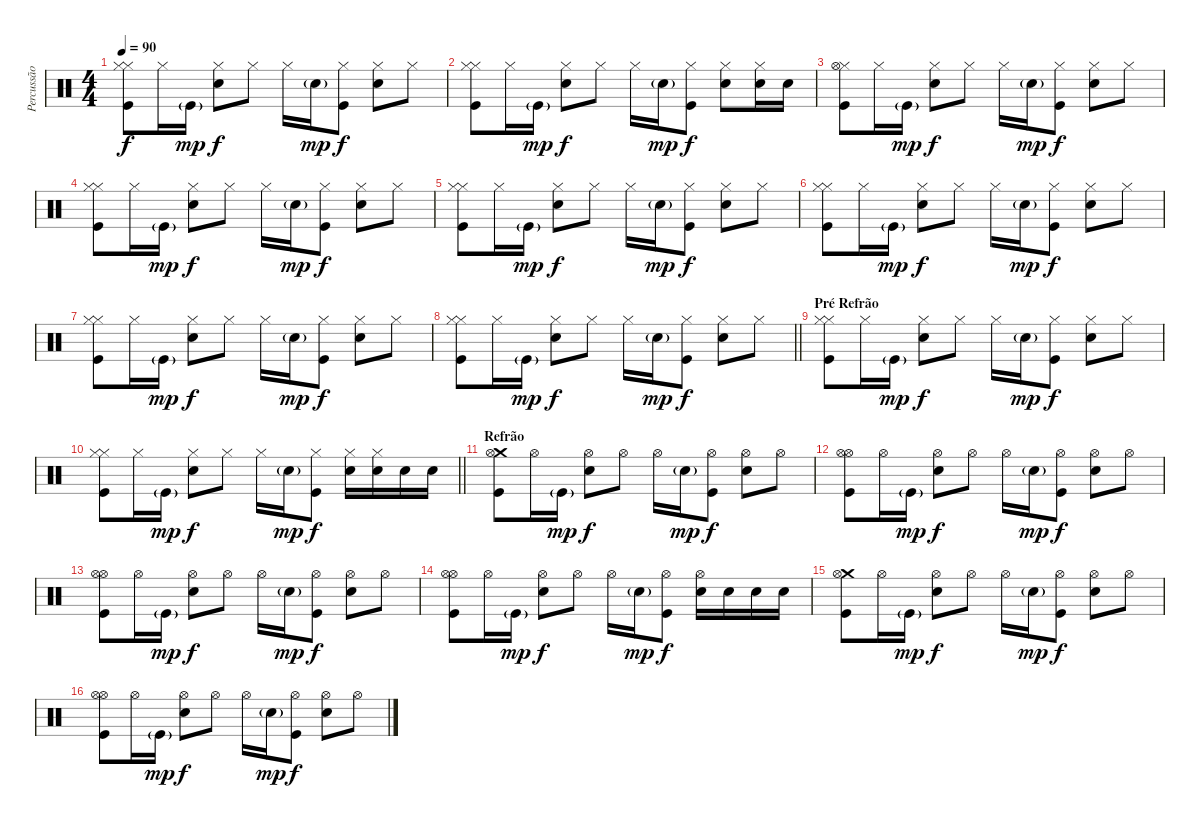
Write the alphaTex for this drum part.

\track ("Percussão" "Percussão") {instrument percussion}
\staff {score}
\articulation defaults
\ts (4 4)
\tempo 90
\clef neutral
\ks c
("Hi-Hat (closed)" "Kick (hit)" "Hi-Hat (closed)").8{dy f} "Hi-Hat (closed)".16 "Kick (hit)"{g}.16{dy mp} ("Snare (hit) 2" "Hi-Hat (closed)").8{dy f} "Hi-Hat (closed)".8 "Hi-Hat (closed)".16 "Snare (hit) 2"{g}.16{dy mp} ("Hi-Hat (closed)" "Kick (hit)").8{dy f} ("Hi-Hat (closed)" "Snare (hit) 2").8 "Hi-Hat (closed)".8 |
("Hi-Hat (closed)" "Kick (hit)" "Hi-Hat (closed)").8 "Hi-Hat (closed)".16 "Kick (hit)"{g}.16{dy mp} ("Snare (hit) 2" "Hi-Hat (closed)").8{dy f} "Hi-Hat (closed)".8 "Hi-Hat (closed)".16 "Snare (hit) 2"{g}.16{dy mp} ("Hi-Hat (closed)" "Kick (hit)").8{dy f} ("Hi-Hat (closed)" "Snare (hit) 2").8 ("Hi-Hat (closed)" "Snare (hit) 2").16 "Snare (hit) 2".16 |
("Hi-Hat (closed)" "Kick (hit)" "Hi-Hat (open)").8 "Hi-Hat (closed)".16 "Kick (hit)"{g}.16{dy mp} ("Snare (hit) 2" "Hi-Hat (closed)").8{dy f} "Hi-Hat (closed)".8 "Hi-Hat (closed)".16 "Snare (hit) 2"{g}.16{dy mp} ("Hi-Hat (closed)" "Kick (hit)").8{dy f} ("Hi-Hat (closed)" "Snare (hit) 2").8 "Hi-Hat (closed)".8 |
("Hi-Hat (closed)" "Kick (hit)" "Hi-Hat (closed)").8 "Hi-Hat (closed)".16 "Kick (hit)"{g}.16{dy mp} ("Snare (hit) 2" "Hi-Hat (closed)").8{dy f} "Hi-Hat (closed)".8 "Hi-Hat (closed)".16 "Snare (hit) 2"{g}.16{dy mp} ("Hi-Hat (closed)" "Kick (hit)").8{dy f} ("Hi-Hat (closed)" "Snare (hit) 2").8 "Hi-Hat (closed)".8 |
("Hi-Hat (closed)" "Kick (hit)" "Hi-Hat (closed)").8 "Hi-Hat (closed)".16 "Kick (hit)"{g}.16{dy mp} ("Snare (hit) 2" "Hi-Hat (closed)").8{dy f} "Hi-Hat (closed)".8 "Hi-Hat (closed)".16 "Snare (hit) 2"{g}.16{dy mp} ("Hi-Hat (closed)" "Kick (hit)").8{dy f} ("Hi-Hat (closed)" "Snare (hit) 2").8 "Hi-Hat (closed)".8 |
("Hi-Hat (closed)" "Kick (hit)" "Hi-Hat (closed)").8 "Hi-Hat (closed)".16 "Kick (hit)"{g}.16{dy mp} ("Snare (hit) 2" "Hi-Hat (closed)").8{dy f} "Hi-Hat (closed)".8 "Hi-Hat (closed)".16 "Snare (hit) 2"{g}.16{dy mp} ("Hi-Hat (closed)" "Kick (hit)").8{dy f} ("Hi-Hat (closed)" "Snare (hit) 2").8 "Hi-Hat (closed)".8 |
("Hi-Hat (closed)" "Kick (hit)" "Hi-Hat (closed)").8 "Hi-Hat (closed)".16 "Kick (hit)"{g}.16{dy mp} ("Snare (hit) 2" "Hi-Hat (closed)").8{dy f} "Hi-Hat (closed)".8 "Hi-Hat (closed)".16 "Snare (hit) 2"{g}.16{dy mp} ("Hi-Hat (closed)" "Kick (hit)").8{dy f} ("Hi-Hat (closed)" "Snare (hit) 2").8 "Hi-Hat (closed)".8 |
\barLineRight lightlight
("Hi-Hat (closed)" "Kick (hit)" "Hi-Hat (closed)").8 "Hi-Hat (closed)".16 "Kick (hit)"{g}.16{dy mp} ("Snare (hit) 2" "Hi-Hat (closed)").8{dy f} "Hi-Hat (closed)".8 "Hi-Hat (closed)".16 "Snare (hit) 2"{g}.16{dy mp} ("Hi-Hat (closed)" "Kick (hit)").8{dy f} ("Hi-Hat (closed)" "Snare (hit) 2").8 "Hi-Hat (closed)".8 |
\section ("" "Pré Refrão")
("Hi-Hat (closed)" "Kick (hit)" "Hi-Hat (closed)").8 "Hi-Hat (closed)".16 "Kick (hit)"{g}.16{dy mp} ("Snare (hit) 2" "Hi-Hat (closed)").8{dy f} "Hi-Hat (closed)".8 "Hi-Hat (closed)".16 "Snare (hit) 2"{g}.16{dy mp} ("Hi-Hat (closed)" "Kick (hit)").8{dy f} ("Hi-Hat (closed)" "Snare (hit) 2").8 "Hi-Hat (closed)".8 |
\barLineRight lightlight
("Hi-Hat (closed)" "Kick (hit)" "Hi-Hat (closed)").8 "Hi-Hat (closed)".16 "Kick (hit)"{g}.16{dy mp} ("Snare (hit) 2" "Hi-Hat (closed)").8{dy f} "Hi-Hat (closed)".8 "Hi-Hat (closed)".16 "Snare (hit) 2"{g}.16{dy mp} ("Hi-Hat (closed)" "Kick (hit)").8{dy f} ("Hi-Hat (closed)" "Snare (hit) 2").16 ("Hi-Hat (closed)" "Snare (hit) 2").16 "Snare (hit) 2".16 "Snare (hit) 2".16 |
\section ("" "Refrão")
("Crash medium (hit)" "Kick (hit)" "Hi-Hat (open)").8 "Hi-Hat (open)".16 "Kick (hit)"{g}.16{dy mp} ("Snare (hit) 2" "Hi-Hat (open)").8{dy f} "Hi-Hat (open)".8 "Hi-Hat (open)".16 "Snare (hit) 2"{g}.16{dy mp} ("Hi-Hat (open)" "Kick (hit)").8{dy f} ("Hi-Hat (open)" "Snare (hit) 2").8 "Hi-Hat (open)".8 |
("Hi-Hat (open)" "Kick (hit)" "Hi-Hat (open)").8 "Hi-Hat (open)".16 "Kick (hit)"{g}.16{dy mp} ("Snare (hit) 2" "Hi-Hat (open)").8{dy f} "Hi-Hat (open)".8 "Hi-Hat (open)".16 "Snare (hit) 2"{g}.16{dy mp} ("Hi-Hat (open)" "Kick (hit)").8{dy f} ("Hi-Hat (open)" "Snare (hit) 2").8 "Hi-Hat (open)".8 |
("Hi-Hat (open)" "Kick (hit)" "Hi-Hat (open)").8 "Hi-Hat (open)".16 "Kick (hit)"{g}.16{dy mp} ("Snare (hit) 2" "Hi-Hat (open)").8{dy f} "Hi-Hat (open)".8 "Hi-Hat (open)".16 "Snare (hit) 2"{g}.16{dy mp} ("Hi-Hat (open)" "Kick (hit)").8{dy f} ("Hi-Hat (open)" "Snare (hit) 2").8 "Hi-Hat (open)".8 |
("Hi-Hat (open)" "Kick (hit)" "Hi-Hat (open)").8 "Hi-Hat (open)".16 "Kick (hit)"{g}.16{dy mp} ("Snare (hit) 2" "Hi-Hat (open)").8{dy f} "Hi-Hat (open)".8 "Hi-Hat (open)".16 "Snare (hit) 2"{g}.16{dy mp} ("Hi-Hat (open)" "Kick (hit)").8{dy f} ("Hi-Hat (open)" "Snare (hit) 2").16 "Snare (hit) 2".16 "Snare (hit) 2".16 "Snare (hit) 2".16 |
("Crash medium (hit)" "Kick (hit)" "Hi-Hat (open)").8 "Hi-Hat (open)".16 "Kick (hit)"{g}.16{dy mp} ("Snare (hit) 2" "Hi-Hat (open)").8{dy f} "Hi-Hat (open)".8 "Hi-Hat (open)".16 "Snare (hit) 2"{g}.16{dy mp} ("Hi-Hat (open)" "Kick (hit)").8{dy f} ("Hi-Hat (open)" "Snare (hit) 2").8 "Hi-Hat (open)".8 |
("Hi-Hat (open)" "Kick (hit)" "Hi-Hat (open)").8 "Hi-Hat (open)".16 "Kick (hit)"{g}.16{dy mp} ("Snare (hit) 2" "Hi-Hat (open)").8{dy f} "Hi-Hat (open)".8 "Hi-Hat (open)".16 "Snare (hit) 2"{g}.16{dy mp} ("Hi-Hat (open)" "Kick (hit)").8{dy f} ("Hi-Hat (open)" "Snare (hit) 2").8 "Hi-Hat (open)".8
